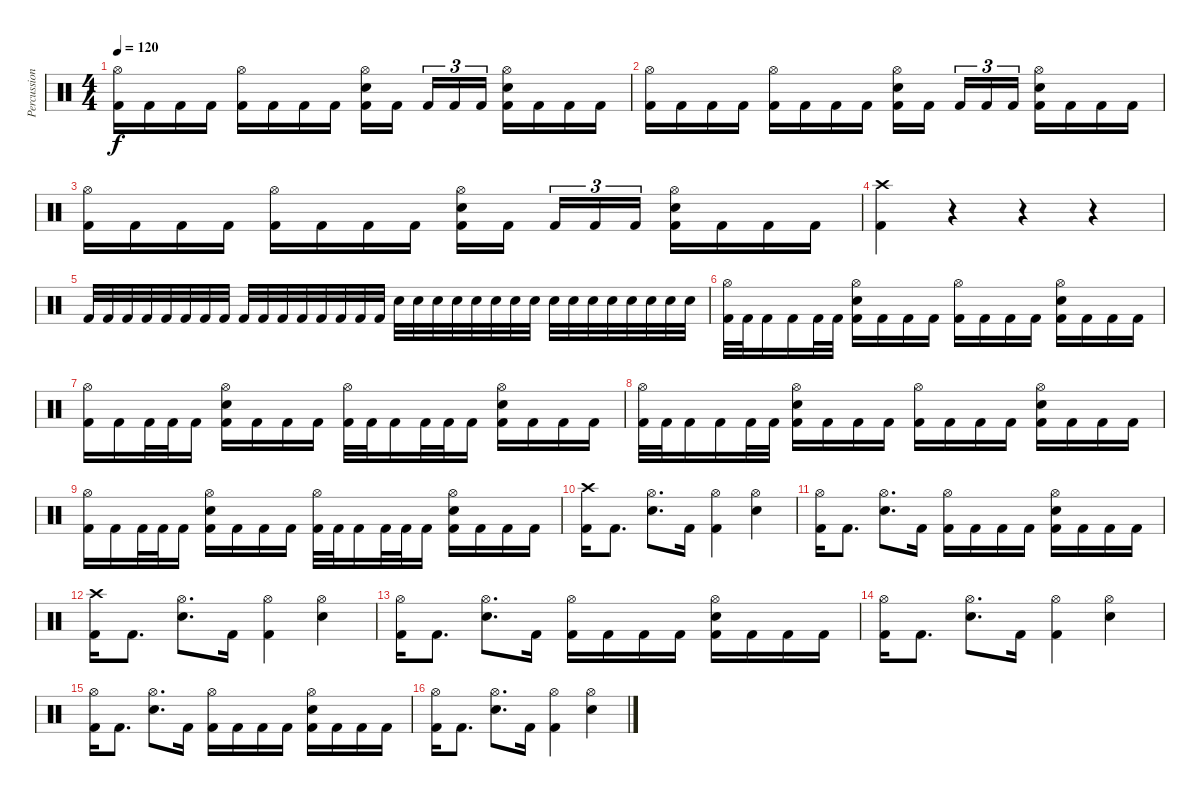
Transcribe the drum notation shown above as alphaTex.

\track ("Percussion" "Percussion") {instrument percussion}
\staff {score}
\articulation defaults
\ts (4 4)
\tempo 120
\clef neutral
\ks c
("Hi-Hat (open)" "Kick (hit) 2").16{dy f} "Kick (hit) 2".16 "Kick (hit) 2".16 "Kick (hit) 2".16 ("Hi-Hat (open)" "Kick (hit) 2").16 "Kick (hit) 2".16 "Kick (hit) 2".16 "Kick (hit) 2".16 ("Hi-Hat (open)" "Snare (hit) 2" "Kick (hit) 2").16 "Kick (hit) 2".16{beam splitsecondary} "Kick (hit) 2".16{tu (3 2)} "Kick (hit) 2".16{tu (3 2)} "Kick (hit) 2".16{tu (3 2)} ("Hi-Hat (open)" "Snare (hit) 2" "Kick (hit) 2").16 "Kick (hit) 2".16 "Kick (hit) 2".16 "Kick (hit) 2".16 |
("Hi-Hat (open)" "Kick (hit) 2").16 "Kick (hit) 2".16 "Kick (hit) 2".16 "Kick (hit) 2".16 ("Hi-Hat (open)" "Kick (hit) 2").16 "Kick (hit) 2".16 "Kick (hit) 2".16 "Kick (hit) 2".16 ("Hi-Hat (open)" "Snare (hit) 2" "Kick (hit) 2").16 "Kick (hit) 2".16{beam splitsecondary} "Kick (hit) 2".16{tu (3 2)} "Kick (hit) 2".16{tu (3 2)} "Kick (hit) 2".16{tu (3 2)} ("Hi-Hat (open)" "Snare (hit) 2" "Kick (hit) 2").16 "Kick (hit) 2".16 "Kick (hit) 2".16 "Kick (hit) 2".16 |
("Hi-Hat (open)" "Kick (hit) 2").16 "Kick (hit) 2".16 "Kick (hit) 2".16 "Kick (hit) 2".16 ("Hi-Hat (open)" "Kick (hit) 2").16 "Kick (hit) 2".16 "Kick (hit) 2".16 "Kick (hit) 2".16 ("Hi-Hat (open)" "Snare (hit) 2" "Kick (hit) 2").16 "Kick (hit) 2".16{beam splitsecondary} "Kick (hit) 2".16{tu (3 2)} "Kick (hit) 2".16{tu (3 2)} "Kick (hit) 2".16{tu (3 2)} ("Hi-Hat (open)" "Snare (hit) 2" "Kick (hit) 2").16 "Kick (hit) 2".16 "Kick (hit) 2".16 "Kick (hit) 2".16 |
("Crash high (hit)" "Kick (hit) 2").4 r.4 r.4 r.4 |
"Kick (hit) 2".32 "Kick (hit) 2".32 "Kick (hit) 2".32 "Kick (hit) 2".32 "Kick (hit) 2".32 "Kick (hit) 2".32 "Kick (hit) 2".32 "Kick (hit) 2".32 "Kick (hit) 2".32 "Kick (hit) 2".32 "Kick (hit) 2".32 "Kick (hit) 2".32 "Kick (hit) 2".32 "Kick (hit) 2".32 "Kick (hit) 2".32 "Kick (hit) 2".32 "Snare (hit) 2".32 "Snare (hit) 2".32 "Snare (hit) 2".32 "Snare (hit) 2".32 "Snare (hit) 2".32 "Snare (hit) 2".32 "Snare (hit) 2".32 "Snare (hit) 2".32 "Snare (hit) 2".32 "Snare (hit) 2".32 "Snare (hit) 2".32 "Snare (hit) 2".32 "Snare (hit) 2".32 "Snare (hit) 2".32 "Snare (hit) 2".32 "Snare (hit) 2".32 |
("Hi-Hat (open)" "Kick (hit) 2").32 "Kick (hit) 2".32 "Kick (hit) 2".16 "Kick (hit) 2".16 "Kick (hit) 2".32 "Kick (hit) 2".32 ("Hi-Hat (open)" "Snare (hit) 2" "Kick (hit) 2").16 "Kick (hit) 2".16 "Kick (hit) 2".16 "Kick (hit) 2".16 ("Hi-Hat (open)" "Kick (hit) 2").16 "Kick (hit) 2".16 "Kick (hit) 2".16 "Kick (hit) 2".16 ("Hi-Hat (open)" "Snare (hit) 2" "Kick (hit) 2").16 "Kick (hit) 2".16 "Kick (hit) 2".16 "Kick (hit) 2".16 |
("Hi-Hat (open)" "Kick (hit) 2").16 "Kick (hit) 2".16 "Kick (hit) 2".32 "Kick (hit) 2".32 "Kick (hit) 2".16 ("Hi-Hat (open)" "Snare (hit) 2" "Kick (hit) 2").16 "Kick (hit) 2".16 "Kick (hit) 2".16 "Kick (hit) 2".16 ("Hi-Hat (open)" "Kick (hit) 2").32 "Kick (hit) 2".32 "Kick (hit) 2".16 "Kick (hit) 2".32 "Kick (hit) 2".32 "Kick (hit) 2".16 ("Hi-Hat (open)" "Snare (hit) 2" "Kick (hit) 2").16 "Kick (hit) 2".16 "Kick (hit) 2".16 "Kick (hit) 2".16 |
("Hi-Hat (open)" "Kick (hit) 2").32 "Kick (hit) 2".32 "Kick (hit) 2".16 "Kick (hit) 2".16 "Kick (hit) 2".32 "Kick (hit) 2".32 ("Hi-Hat (open)" "Snare (hit) 2" "Kick (hit) 2").16 "Kick (hit) 2".16 "Kick (hit) 2".16 "Kick (hit) 2".16 ("Hi-Hat (open)" "Kick (hit) 2").16 "Kick (hit) 2".16 "Kick (hit) 2".16 "Kick (hit) 2".16 ("Hi-Hat (open)" "Snare (hit) 2" "Kick (hit) 2").16 "Kick (hit) 2".16 "Kick (hit) 2".16 "Kick (hit) 2".16 |
("Hi-Hat (open)" "Kick (hit) 2").16 "Kick (hit) 2".16 "Kick (hit) 2".32 "Kick (hit) 2".32 "Kick (hit) 2".16 ("Hi-Hat (open)" "Snare (hit) 2" "Kick (hit) 2").16 "Kick (hit) 2".16 "Kick (hit) 2".16 "Kick (hit) 2".16 ("Hi-Hat (open)" "Kick (hit) 2").32 "Kick (hit) 2".32 "Kick (hit) 2".16 "Kick (hit) 2".32 "Kick (hit) 2".32 "Kick (hit) 2".16 ("Hi-Hat (open)" "Snare (hit) 2" "Kick (hit) 2").16 "Kick (hit) 2".16 "Kick (hit) 2".16 "Kick (hit) 2".16 |
("Crash high (hit)" "Kick (hit) 2").16 "Kick (hit) 2".8{d} ("Hi-Hat (open)" "Snare (hit) 2").8{d} "Kick (hit) 2".16 ("Hi-Hat (open)" "Kick (hit) 2").4 ("Hi-Hat (open)" "Snare (hit) 2").4 |
("Hi-Hat (open)" "Kick (hit) 2").16 "Kick (hit) 2".8{d} ("Hi-Hat (open)" "Snare (hit) 2").8{d} "Kick (hit) 2".16 ("Hi-Hat (open)" "Kick (hit) 2").16 "Kick (hit) 2".16 "Kick (hit) 2".16 "Kick (hit) 2".16 ("Hi-Hat (open)" "Snare (hit) 2" "Kick (hit) 2").16 "Kick (hit) 2".16 "Kick (hit) 2".16 "Kick (hit) 2".16 |
("Crash high (hit)" "Kick (hit) 2").16 "Kick (hit) 2".8{d} ("Hi-Hat (open)" "Snare (hit) 2").8{d} "Kick (hit) 2".16 ("Hi-Hat (open)" "Kick (hit) 2").4 ("Hi-Hat (open)" "Snare (hit) 2").4 |
("Hi-Hat (open)" "Kick (hit) 2").16 "Kick (hit) 2".8{d} ("Hi-Hat (open)" "Snare (hit) 2").8{d} "Kick (hit) 2".16 ("Hi-Hat (open)" "Kick (hit) 2").16 "Kick (hit) 2".16 "Kick (hit) 2".16 "Kick (hit) 2".16 ("Hi-Hat (open)" "Snare (hit) 2" "Kick (hit) 2").16 "Kick (hit) 2".16 "Kick (hit) 2".16 "Kick (hit) 2".16 |
("Hi-Hat (open)" "Kick (hit) 2").16 "Kick (hit) 2".8{d} ("Hi-Hat (open)" "Snare (hit) 2").8{d} "Kick (hit) 2".16 ("Hi-Hat (open)" "Kick (hit) 2").4 ("Hi-Hat (open)" "Snare (hit) 2").4 |
("Hi-Hat (open)" "Kick (hit) 2").16 "Kick (hit) 2".8{d} ("Hi-Hat (open)" "Snare (hit) 2").8{d} "Kick (hit) 2".16 ("Hi-Hat (open)" "Kick (hit) 2").16 "Kick (hit) 2".16 "Kick (hit) 2".16 "Kick (hit) 2".16 ("Hi-Hat (open)" "Snare (hit) 2" "Kick (hit) 2").16 "Kick (hit) 2".16 "Kick (hit) 2".16 "Kick (hit) 2".16 |
("Hi-Hat (open)" "Kick (hit) 2").16 "Kick (hit) 2".8{d} ("Hi-Hat (open)" "Snare (hit) 2").8{d} "Kick (hit) 2".16 ("Hi-Hat (open)" "Kick (hit) 2").4 ("Hi-Hat (open)" "Snare (hit) 2").4
